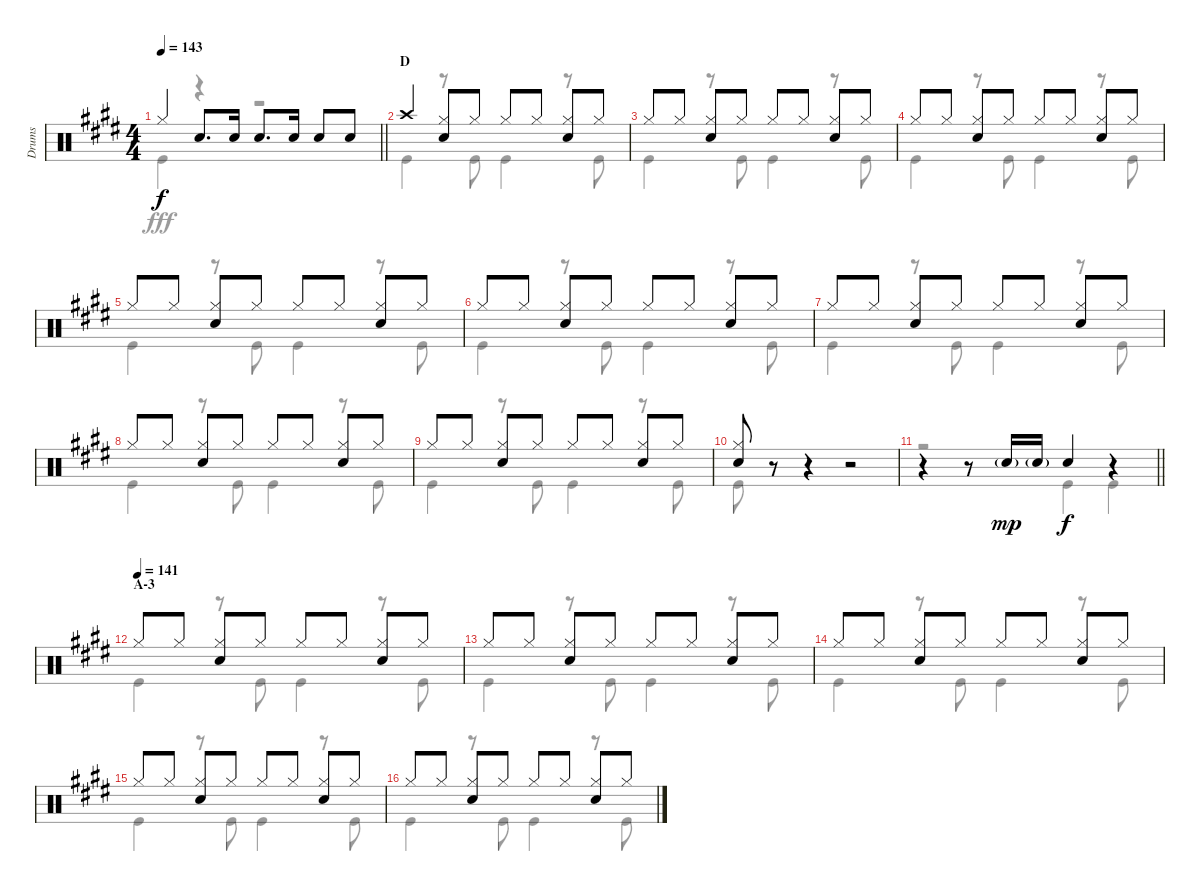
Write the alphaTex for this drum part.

\track ("Drums" "Drums") {instrument percussion}
\staff {score}
\articulation defaults
\voice
\ts (4 4)
\tempo 143
\clef neutral
\barLineRight lightlight
\ks e "Hi-Hat (closed)".4{dy f} "Snare (hit) 2".8{d} "Snare (hit) 2".16 "Snare (hit) 2".8{d} "Snare (hit) 2".16 "Snare (hit) 2".8 "Snare (hit) 2".8
|
\section ("" "D")
"Crash high (hit)".4 ("Hi-Hat (closed)" "Snare (hit) 2").8 "Hi-Hat (closed)".8 "Hi-Hat (closed)".8 "Hi-Hat (closed)".8 ("Hi-Hat (closed)" "Snare (hit) 2").8 "Hi-Hat (closed)".8 |
"Hi-Hat (closed)".8 "Hi-Hat (closed)".8 ("Hi-Hat (closed)" "Snare (hit) 2").8 "Hi-Hat (closed)".8 "Hi-Hat (closed)".8 "Hi-Hat (closed)".8 ("Hi-Hat (closed)" "Snare (hit) 2").8 "Hi-Hat (closed)".8 |
"Hi-Hat (closed)".8 "Hi-Hat (closed)".8 ("Hi-Hat (closed)" "Snare (hit) 2").8 "Hi-Hat (closed)".8 "Hi-Hat (closed)".8 "Hi-Hat (closed)".8 ("Hi-Hat (closed)" "Snare (hit) 2").8 "Hi-Hat (closed)".8 |
"Hi-Hat (closed)".8 "Hi-Hat (closed)".8 ("Hi-Hat (closed)" "Snare (hit) 2").8 "Hi-Hat (closed)".8 "Hi-Hat (closed)".8 "Hi-Hat (closed)".8 ("Hi-Hat (closed)" "Snare (hit) 2").8 "Hi-Hat (closed)".8 |
"Hi-Hat (closed)".8 "Hi-Hat (closed)".8 ("Hi-Hat (closed)" "Snare (hit) 2").8 "Hi-Hat (closed)".8 "Hi-Hat (closed)".8 "Hi-Hat (closed)".8 ("Hi-Hat (closed)" "Snare (hit) 2").8 "Hi-Hat (closed)".8 |
"Hi-Hat (closed)".8 "Hi-Hat (closed)".8 ("Hi-Hat (closed)" "Snare (hit) 2").8 "Hi-Hat (closed)".8 "Hi-Hat (closed)".8 "Hi-Hat (closed)".8 ("Hi-Hat (closed)" "Snare (hit) 2").8 "Hi-Hat (closed)".8 |
"Hi-Hat (closed)".8 "Hi-Hat (closed)".8 ("Hi-Hat (closed)" "Snare (hit) 2").8 "Hi-Hat (closed)".8 "Hi-Hat (closed)".8 "Hi-Hat (closed)".8 ("Hi-Hat (closed)" "Snare (hit) 2").8 "Hi-Hat (closed)".8 |
"Hi-Hat (closed)".8 "Hi-Hat (closed)".8 ("Hi-Hat (closed)" "Snare (hit) 2").8 "Hi-Hat (closed)".8 "Hi-Hat (closed)".8 "Hi-Hat (closed)".8 ("Hi-Hat (closed)" "Snare (hit) 2").8 "Hi-Hat (closed)".8 |
("Hi-Hat (closed)" "Snare (hit) 2").8 r.8 r.4 r.2 |
\barLineRight lightlight
r.4 r.8 "Snare (hit) 2"{g}.16{dy mp} "Snare (hit) 2"{g}.16 "Snare (hit) 2".4{dy f} r.4 |
\section ("" "A-3")
\tempo (141)
"Hi-Hat (closed)".8 "Hi-Hat (closed)".8 ("Hi-Hat (closed)" "Snare (hit) 2").8 "Hi-Hat (closed)".8 "Hi-Hat (closed)".8 "Hi-Hat (closed)".8 ("Hi-Hat (closed)" "Snare (hit) 2").8 "Hi-Hat (closed)".8 |
"Hi-Hat (closed)".8 "Hi-Hat (closed)".8 ("Hi-Hat (closed)" "Snare (hit) 2").8 "Hi-Hat (closed)".8 "Hi-Hat (closed)".8 "Hi-Hat (closed)".8 ("Hi-Hat (closed)" "Snare (hit) 2").8 "Hi-Hat (closed)".8 |
"Hi-Hat (closed)".8 "Hi-Hat (closed)".8 ("Hi-Hat (closed)" "Snare (hit) 2").8 "Hi-Hat (closed)".8 "Hi-Hat (closed)".8 "Hi-Hat (closed)".8 ("Hi-Hat (closed)" "Snare (hit) 2").8 "Hi-Hat (closed)".8 |
"Hi-Hat (closed)".8 "Hi-Hat (closed)".8 ("Hi-Hat (closed)" "Snare (hit) 2").8 "Hi-Hat (closed)".8 "Hi-Hat (closed)".8 "Hi-Hat (closed)".8 ("Hi-Hat (closed)" "Snare (hit) 2").8 "Hi-Hat (closed)".8 |
"Hi-Hat (closed)".8 "Hi-Hat (closed)".8 ("Hi-Hat (closed)" "Snare (hit) 2").8 "Hi-Hat (closed)".8 "Hi-Hat (closed)".8 "Hi-Hat (closed)".8 ("Hi-Hat (closed)" "Snare (hit) 2").8 "Hi-Hat (closed)".8
\voice
\clef neutral
\ottava regular
\simile none
\barLineRight lightlight
\ks e "Kick (hit)".4{dy fff}
r.4 r.2 |
"Kick (hit)".4 r.8 "Kick (hit)".8 "Kick (hit)".4 r.8 "Kick (hit)".8 |
"Kick (hit)".4 r.8 "Kick (hit)".8 "Kick (hit)".4 r.8 "Kick (hit)".8 |
"Kick (hit)".4 r.8 "Kick (hit)".8 "Kick (hit)".4 r.8 "Kick (hit)".8 |
"Kick (hit)".4 r.8 "Kick (hit)".8 "Kick (hit)".4 r.8 "Kick (hit)".8 |
"Kick (hit)".4 r.8 "Kick (hit)".8 "Kick (hit)".4 r.8 "Kick (hit)".8 |
"Kick (hit)".4 r.8 "Kick (hit)".8 "Kick (hit)".4 r.8 "Kick (hit)".8 |
"Kick (hit)".4 r.8 "Kick (hit)".8 "Kick (hit)".4 r.8 "Kick (hit)".8 |
"Kick (hit)".4 r.8 "Kick (hit)".8 "Kick (hit)".4 r.8 "Kick (hit)".8 |
"Kick (hit)".8 r.8 r.4 r.2 |
\barLineRight lightlight
r.2 "Kick (hit)".4 "Kick (hit)".4 |
"Kick (hit)".4 r.8 "Kick (hit)".8 "Kick (hit)".4 r.8 "Kick (hit)".8 |
"Kick (hit)".4 r.8 "Kick (hit)".8 "Kick (hit)".4 r.8 "Kick (hit)".8 |
"Kick (hit)".4 r.8 "Kick (hit)".8 "Kick (hit)".4 r.8 "Kick (hit)".8 |
"Kick (hit)".4 r.8 "Kick (hit)".8 "Kick (hit)".4 r.8 "Kick (hit)".8 |
"Kick (hit)".4 r.8 "Kick (hit)".8 "Kick (hit)".4 r.8 "Kick (hit)".8
